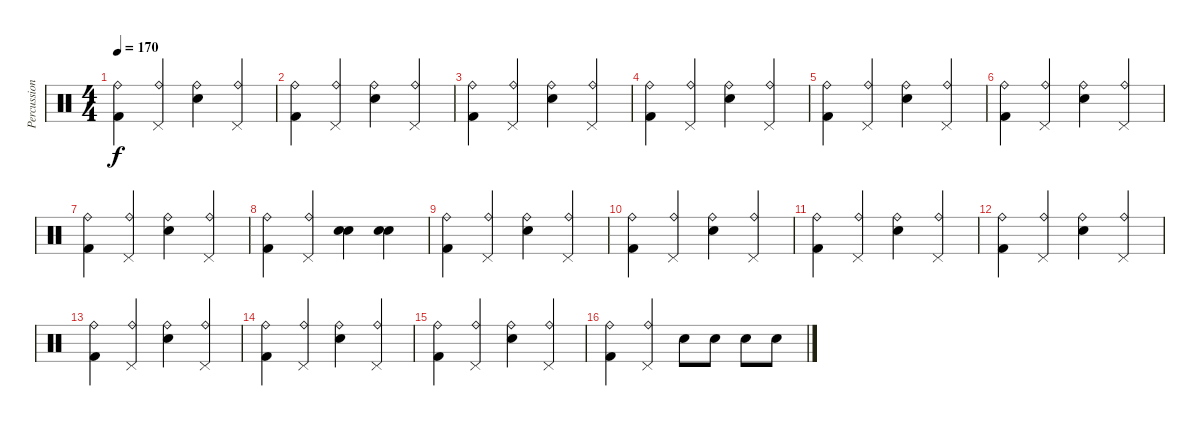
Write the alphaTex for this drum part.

\track ("Percussion" "Percussion") {instrument percussion}
\staff {score}
\articulation defaults
\ts (4 4)
\tempo 170
\clef neutral
\ks c
("Ride (bell)" "Kick (hit) 2").4{dy f} ("Ride (bell)" "Pedal Hi-Hat (hit)").4 ("Ride (bell)" "Electric Snare (hit)").4 ("Ride (bell)" "Pedal Hi-Hat (hit)").4 |
("Ride (bell)" "Kick (hit) 2").4 ("Ride (bell)" "Pedal Hi-Hat (hit)").4 ("Ride (bell)" "Electric Snare (hit)").4 ("Ride (bell)" "Pedal Hi-Hat (hit)").4 |
("Ride (bell)" "Kick (hit) 2").4 ("Ride (bell)" "Pedal Hi-Hat (hit)").4 ("Ride (bell)" "Electric Snare (hit)").4 ("Ride (bell)" "Pedal Hi-Hat (hit)").4 |
("Ride (bell)" "Kick (hit) 2").4 ("Ride (bell)" "Pedal Hi-Hat (hit)").4 ("Ride (bell)" "Electric Snare (hit)").4 ("Ride (bell)" "Pedal Hi-Hat (hit)").4 |
("Ride (bell)" "Kick (hit) 2").4 ("Ride (bell)" "Pedal Hi-Hat (hit)").4 ("Ride (bell)" "Electric Snare (hit)").4 ("Ride (bell)" "Pedal Hi-Hat (hit)").4 |
("Ride (bell)" "Kick (hit) 2").4 ("Ride (bell)" "Pedal Hi-Hat (hit)").4 ("Ride (bell)" "Electric Snare (hit)").4 ("Ride (bell)" "Pedal Hi-Hat (hit)").4 |
("Ride (bell)" "Kick (hit) 2").4 ("Ride (bell)" "Pedal Hi-Hat (hit)").4 ("Ride (bell)" "Electric Snare (hit)").4 ("Ride (bell)" "Pedal Hi-Hat (hit)").4 |
("Ride (bell)" "Kick (hit) 2").4 ("Ride (bell)" "Pedal Hi-Hat (hit)").4 ("Electric Snare (hit)" "Electric Snare (hit)").4 ("Electric Snare (hit)" "Electric Snare (hit)").4 |
("Ride (bell)" "Kick (hit) 2").4 ("Ride (bell)" "Pedal Hi-Hat (hit)").4 ("Ride (bell)" "Electric Snare (hit)").4 ("Ride (bell)" "Pedal Hi-Hat (hit)").4 |
("Ride (bell)" "Kick (hit) 2").4 ("Ride (bell)" "Pedal Hi-Hat (hit)").4 ("Ride (bell)" "Electric Snare (hit)").4 ("Ride (bell)" "Pedal Hi-Hat (hit)").4 |
("Ride (bell)" "Kick (hit) 2").4 ("Ride (bell)" "Pedal Hi-Hat (hit)").4 ("Ride (bell)" "Electric Snare (hit)").4 ("Ride (bell)" "Pedal Hi-Hat (hit)").4 |
("Ride (bell)" "Kick (hit) 2").4 ("Ride (bell)" "Pedal Hi-Hat (hit)").4 ("Ride (bell)" "Electric Snare (hit)").4 ("Ride (bell)" "Pedal Hi-Hat (hit)").4 |
("Ride (bell)" "Kick (hit) 2").4 ("Ride (bell)" "Pedal Hi-Hat (hit)").4 ("Ride (bell)" "Electric Snare (hit)").4 ("Ride (bell)" "Pedal Hi-Hat (hit)").4 |
("Ride (bell)" "Kick (hit) 2").4 ("Ride (bell)" "Pedal Hi-Hat (hit)").4 ("Ride (bell)" "Electric Snare (hit)").4 ("Ride (bell)" "Pedal Hi-Hat (hit)").4 |
("Ride (bell)" "Kick (hit) 2").4 ("Ride (bell)" "Pedal Hi-Hat (hit)").4 ("Ride (bell)" "Electric Snare (hit)").4 ("Ride (bell)" "Pedal Hi-Hat (hit)").4 |
("Ride (bell)" "Kick (hit) 2").4 ("Ride (bell)" "Pedal Hi-Hat (hit)").4 "Electric Snare (hit)".8 "Electric Snare (hit)".8 "Electric Snare (hit)".8 "Electric Snare (hit)".8
